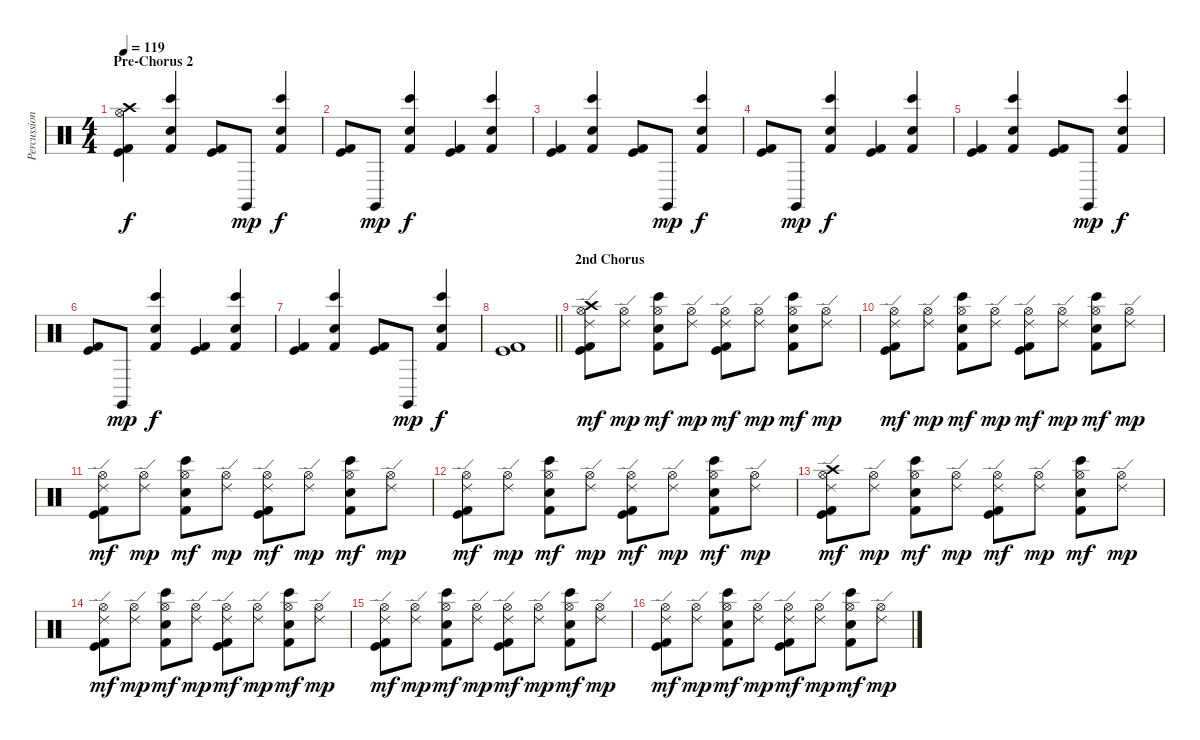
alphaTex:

\track ("Percussion" "Percussion") {instrument percussion}
\staff {score}
\articulation defaults
\ts (4 4)
\section ("" "Pre-Chorus 2")
\tempo 119
\clef neutral
\ks c
("Crash high (hit)" "Hi-Hat (open)" "Kick (hit)" "Kick (hit) 2").4{dy f} ("Bongo High (hit)" "Hand Clap (hit)" "Kick (hit) 2").4 ("Kick (hit)" "Kick (hit) 2").8 "Claves (hit)".8{dy mp} ("Bongo High (hit)" "Hand Clap (hit)" "Kick (hit) 2").4{dy f} |
("Kick (hit)" "Kick (hit) 2").8 "Claves (hit)".8{dy mp} ("Bongo High (hit)" "Hand Clap (hit)" "Kick (hit) 2").4{dy f} ("Kick (hit)" "Kick (hit) 2").4 ("Bongo High (hit)" "Hand Clap (hit)" "Kick (hit) 2").4 |
("Kick (hit)" "Kick (hit) 2").4 ("Bongo High (hit)" "Hand Clap (hit)" "Kick (hit) 2").4 ("Kick (hit)" "Kick (hit) 2").8 "Claves (hit)".8{dy mp} ("Bongo High (hit)" "Hand Clap (hit)" "Kick (hit) 2").4{dy f} |
("Kick (hit)" "Kick (hit) 2").8 "Claves (hit)".8{dy mp} ("Bongo High (hit)" "Hand Clap (hit)" "Kick (hit) 2").4{dy f} ("Kick (hit)" "Kick (hit) 2").4 ("Bongo High (hit)" "Hand Clap (hit)" "Kick (hit) 2").4 |
("Kick (hit)" "Kick (hit) 2").4 ("Bongo High (hit)" "Hand Clap (hit)" "Kick (hit) 2").4 ("Kick (hit)" "Kick (hit) 2").8 "Claves (hit)".8{dy mp} ("Bongo High (hit)" "Hand Clap (hit)" "Kick (hit) 2").4{dy f} |
("Kick (hit)" "Kick (hit) 2").8 "Claves (hit)".8{dy mp} ("Bongo High (hit)" "Hand Clap (hit)" "Kick (hit) 2").4{dy f} ("Kick (hit)" "Kick (hit) 2").4 ("Bongo High (hit)" "Hand Clap (hit)" "Kick (hit) 2").4 |
("Kick (hit)" "Kick (hit) 2").4 ("Bongo High (hit)" "Hand Clap (hit)" "Kick (hit) 2").4 ("Kick (hit)" "Kick (hit) 2").8 "Claves (hit)".8{dy mp} ("Bongo High (hit)" "Hand Clap (hit)" "Kick (hit) 2").4{dy f} |
\barLineRight lightlight
("Kick (hit)" "Kick (hit) 2").1 |
\section ("" "2nd Chorus")
("Crash high (hit)" "Ride (edge) 2" "Hi-Hat (open)" "Kick (hit)" "Kick (hit) 2").8{dy mf} ("Ride (edge) 2" "Hi-Hat (open)").8{dy mp} ("Bongo High (hit)" "Hi-Hat (open)" "Hand Clap (hit)" "Kick (hit) 2").8{dy mf} ("Ride (edge) 2" "Hi-Hat (open)").8{dy mp} ("Ride (edge) 2" "Hi-Hat (open)" "Kick (hit)" "Kick (hit) 2").8{dy mf} ("Ride (edge) 2" "Hi-Hat (open)").8{dy mp} ("Bongo High (hit)" "Hi-Hat (open)" "Hand Clap (hit)" "Kick (hit) 2").8{dy mf} ("Ride (edge) 2" "Hi-Hat (open)").8{dy mp} |
("Ride (edge) 2" "Hi-Hat (open)" "Kick (hit)" "Kick (hit) 2").8{dy mf} ("Ride (edge) 2" "Hi-Hat (open)").8{dy mp} ("Bongo High (hit)" "Hi-Hat (open)" "Hand Clap (hit)" "Kick (hit) 2").8{dy mf} ("Ride (edge) 2" "Hi-Hat (open)").8{dy mp} ("Ride (edge) 2" "Hi-Hat (open)" "Kick (hit)" "Kick (hit) 2").8{dy mf} ("Ride (edge) 2" "Hi-Hat (open)").8{dy mp} ("Bongo High (hit)" "Hi-Hat (open)" "Hand Clap (hit)" "Kick (hit) 2").8{dy mf} ("Ride (edge) 2" "Hi-Hat (open)").8{dy mp} |
("Ride (edge) 2" "Hi-Hat (open)" "Kick (hit)" "Kick (hit) 2").8{dy mf} ("Ride (edge) 2" "Hi-Hat (open)").8{dy mp} ("Bongo High (hit)" "Hi-Hat (open)" "Hand Clap (hit)" "Kick (hit) 2").8{dy mf} ("Ride (edge) 2" "Hi-Hat (open)").8{dy mp} ("Ride (edge) 2" "Hi-Hat (open)" "Kick (hit)" "Kick (hit) 2").8{dy mf} ("Ride (edge) 2" "Hi-Hat (open)").8{dy mp} ("Bongo High (hit)" "Hi-Hat (open)" "Hand Clap (hit)" "Kick (hit) 2").8{dy mf} ("Ride (edge) 2" "Hi-Hat (open)").8{dy mp} |
("Ride (edge) 2" "Hi-Hat (open)" "Kick (hit)" "Kick (hit) 2").8{dy mf} ("Ride (edge) 2" "Hi-Hat (open)").8{dy mp} ("Bongo High (hit)" "Hi-Hat (open)" "Hand Clap (hit)" "Kick (hit) 2").8{dy mf} ("Ride (edge) 2" "Hi-Hat (open)").8{dy mp} ("Ride (edge) 2" "Hi-Hat (open)" "Kick (hit)" "Kick (hit) 2").8{dy mf} ("Ride (edge) 2" "Hi-Hat (open)").8{dy mp} ("Bongo High (hit)" "Hi-Hat (open)" "Hand Clap (hit)" "Kick (hit) 2").8{dy mf} ("Ride (edge) 2" "Hi-Hat (open)").8{dy mp} |
("Crash high (hit)" "Ride (edge) 2" "Hi-Hat (open)" "Kick (hit)" "Kick (hit) 2").8{dy mf} ("Ride (edge) 2" "Hi-Hat (open)").8{dy mp} ("Bongo High (hit)" "Hi-Hat (open)" "Hand Clap (hit)" "Kick (hit) 2").8{dy mf} ("Ride (edge) 2" "Hi-Hat (open)").8{dy mp} ("Ride (edge) 2" "Hi-Hat (open)" "Kick (hit)" "Kick (hit) 2").8{dy mf} ("Ride (edge) 2" "Hi-Hat (open)").8{dy mp} ("Bongo High (hit)" "Hi-Hat (open)" "Hand Clap (hit)" "Kick (hit) 2").8{dy mf} ("Ride (edge) 2" "Hi-Hat (open)").8{dy mp} |
("Ride (edge) 2" "Hi-Hat (open)" "Kick (hit)" "Kick (hit) 2").8{dy mf} ("Ride (edge) 2" "Hi-Hat (open)").8{dy mp} ("Bongo High (hit)" "Hi-Hat (open)" "Hand Clap (hit)" "Kick (hit) 2").8{dy mf} ("Ride (edge) 2" "Hi-Hat (open)").8{dy mp} ("Ride (edge) 2" "Hi-Hat (open)" "Kick (hit)" "Kick (hit) 2").8{dy mf} ("Ride (edge) 2" "Hi-Hat (open)").8{dy mp} ("Bongo High (hit)" "Hi-Hat (open)" "Hand Clap (hit)" "Kick (hit) 2").8{dy mf} ("Ride (edge) 2" "Hi-Hat (open)").8{dy mp} |
("Ride (edge) 2" "Hi-Hat (open)" "Kick (hit)" "Kick (hit) 2").8{dy mf} ("Ride (edge) 2" "Hi-Hat (open)").8{dy mp} ("Bongo High (hit)" "Hi-Hat (open)" "Hand Clap (hit)" "Kick (hit) 2").8{dy mf} ("Ride (edge) 2" "Hi-Hat (open)").8{dy mp} ("Ride (edge) 2" "Hi-Hat (open)" "Kick (hit)" "Kick (hit) 2").8{dy mf} ("Ride (edge) 2" "Hi-Hat (open)").8{dy mp} ("Bongo High (hit)" "Hi-Hat (open)" "Hand Clap (hit)" "Kick (hit) 2").8{dy mf} ("Ride (edge) 2" "Hi-Hat (open)").8{dy mp} |
("Ride (edge) 2" "Hi-Hat (open)" "Kick (hit)" "Kick (hit) 2").8{dy mf} ("Ride (edge) 2" "Hi-Hat (open)").8{dy mp} ("Bongo High (hit)" "Hi-Hat (open)" "Hand Clap (hit)" "Kick (hit) 2").8{dy mf} ("Ride (edge) 2" "Hi-Hat (open)").8{dy mp} ("Ride (edge) 2" "Hi-Hat (open)" "Kick (hit)" "Kick (hit) 2").8{dy mf} ("Ride (edge) 2" "Hi-Hat (open)").8{dy mp} ("Bongo High (hit)" "Hi-Hat (open)" "Hand Clap (hit)" "Kick (hit) 2").8{dy mf} ("Ride (edge) 2" "Hi-Hat (open)").8{dy mp}
